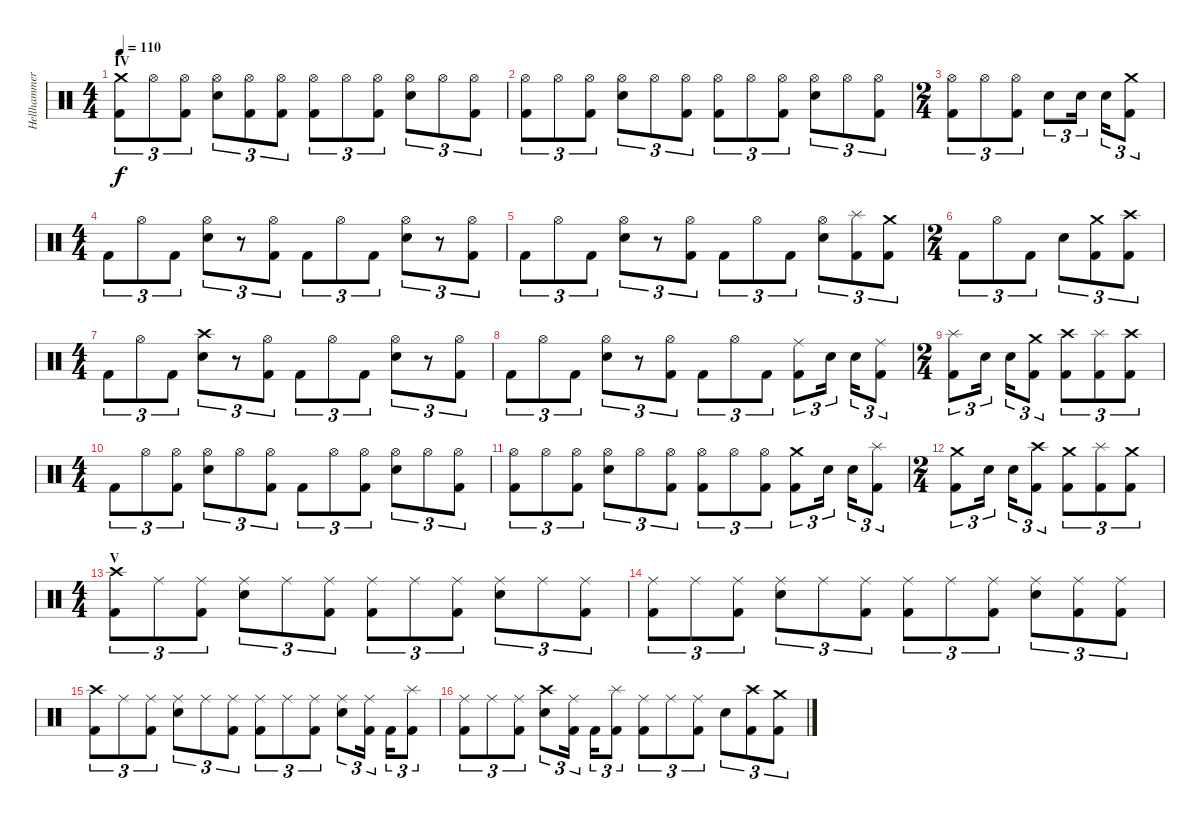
\track ("Hellhammer" "Hellhammer") {instrument percussion}
\staff {score}
\articulation defaults
\ts (4 4)
\section ("" "IV")
\tempo 110
\clef neutral
\ks c
("Kick (hit) 2" "Crash medium (hit)").8{tu (3 2) dy f} "Hi-Hat (open)".8{tu (3 2)} ("Kick (hit) 2" "Hi-Hat (open)").8{tu (3 2)} ("Electric Snare (hit)" "Hi-Hat (open)").8{tu (3 2)} ("Kick (hit) 2" "Hi-Hat (open)").8{tu (3 2)} ("Kick (hit) 2" "Hi-Hat (open)").8{tu (3 2)} ("Kick (hit) 2" "Hi-Hat (open)").8{tu (3 2)} "Hi-Hat (open)".8{tu (3 2)} ("Kick (hit) 2" "Hi-Hat (open)").8{tu (3 2)} ("Electric Snare (hit)" "Hi-Hat (open)").8{tu (3 2)} "Hi-Hat (open)".8{tu (3 2)} ("Kick (hit) 2" "Hi-Hat (open)").8{tu (3 2)} |
("Kick (hit) 2" "Hi-Hat (open)").8{tu (3 2)} "Hi-Hat (open)".8{tu (3 2)} ("Kick (hit) 2" "Hi-Hat (open)").8{tu (3 2)} ("Electric Snare (hit)" "Hi-Hat (open)").8{tu (3 2)} "Hi-Hat (open)".8{tu (3 2)} ("Kick (hit) 2" "Hi-Hat (open)").8{tu (3 2)} ("Kick (hit) 2" "Hi-Hat (open)").8{tu (3 2)} "Hi-Hat (open)".8{tu (3 2)} ("Kick (hit) 2" "Hi-Hat (open)").8{tu (3 2)} ("Electric Snare (hit)" "Hi-Hat (open)").8{tu (3 2)} "Hi-Hat (open)".8{tu (3 2)} ("Kick (hit) 2" "Hi-Hat (open)").8{tu (3 2)} |
\ts (2 4)
("Kick (hit) 2" "Hi-Hat (open)").8{tu (3 2)} "Hi-Hat (open)".8{tu (3 2)} ("Kick (hit) 2" "Hi-Hat (open)").8{tu (3 2)} "Electric Snare (hit)".8{tu (3 2)} "Electric Snare (hit)".16{tu (3 2)} "Electric Snare (hit)".16{tu (3 2)} ("Kick (hit) 2" "Crash medium (hit)").8{tu (3 2)} |
\ts (4 4)
"Kick (hit) 2".8{tu (3 2)} "Hi-Hat (open)".8{tu (3 2)} "Kick (hit) 2".8{tu (3 2)} ("Electric Snare (hit)" "Hi-Hat (open)").8{tu (3 2)} r.8{tu (3 2)} ("Kick (hit) 2" "Hi-Hat (open)").8{tu (3 2)} "Kick (hit) 2".8{tu (3 2)} "Hi-Hat (open)".8{tu (3 2)} "Kick (hit) 2".8{tu (3 2)} ("Electric Snare (hit)" "Hi-Hat (open)").8{tu (3 2)} r.8{tu (3 2)} ("Kick (hit) 2" "Hi-Hat (open)").8{tu (3 2)} |
"Kick (hit) 2".8{tu (3 2)} "Hi-Hat (open)".8{tu (3 2)} "Kick (hit) 2".8{tu (3 2)} ("Electric Snare (hit)" "Hi-Hat (open)").8{tu (3 2)} r.8{tu (3 2)} ("Kick (hit) 2" "Hi-Hat (open)").8{tu (3 2)} "Kick (hit) 2".8{tu (3 2)} "Hi-Hat (open)".8{tu (3 2)} "Kick (hit) 2".8{tu (3 2)} ("Electric Snare (hit)" "Hi-Hat (open)").8{tu (3 2)} ("Kick (hit) 2" "Splash (hit)").8{tu (3 2)} ("Kick (hit) 2" "Crash medium (hit)").8{tu (3 2)} |
\ts (2 4)
"Kick (hit) 2".8{tu (3 2)} "Hi-Hat (open)".8{tu (3 2)} "Kick (hit) 2".8{tu (3 2)} "Electric Snare (hit)".8{tu (3 2)} ("Kick (hit) 2" "Crash medium (hit)").8{tu (3 2)} ("Kick (hit) 2" "Crash high (hit)").8{tu (3 2)} |
\ts (4 4)
"Kick (hit) 2".8{tu (3 2)} "Hi-Hat (open)".8{tu (3 2)} "Kick (hit) 2".8{tu (3 2)} ("Electric Snare (hit)" "Crash high (hit)").8{tu (3 2)} r.8{tu (3 2)} ("Kick (hit) 2" "Hi-Hat (open)").8{tu (3 2)} "Kick (hit) 2".8{tu (3 2)} "Hi-Hat (open)".8{tu (3 2)} "Kick (hit) 2".8{tu (3 2)} ("Electric Snare (hit)" "Hi-Hat (open)").8{tu (3 2)} r.8{tu (3 2)} ("Kick (hit) 2" "Hi-Hat (open)").8{tu (3 2)} |
"Kick (hit) 2".8{tu (3 2)} "Hi-Hat (open)".8{tu (3 2)} "Kick (hit) 2".8{tu (3 2)} ("Electric Snare (hit)" "Hi-Hat (open)").8{tu (3 2)} r.8{tu (3 2)} ("Kick (hit) 2" "Hi-Hat (open)").8{tu (3 2)} "Kick (hit) 2".8{tu (3 2)} "Hi-Hat (open)".8{tu (3 2)} "Kick (hit) 2".8{tu (3 2)} ("Kick (hit) 2" "Ride (middle)").8{tu (3 2)} "Electric Snare (hit)".16{tu (3 2)} "Electric Snare (hit)".16{tu (3 2)} ("Kick (hit) 2" "Ride (middle)").8{tu (3 2)} |
\ts (2 4)
("Kick (hit) 2" "Splash (hit)").8{tu (3 2)} "Electric Snare (hit)".16{tu (3 2)} "Electric Snare (hit)".16{tu (3 2)} ("Kick (hit) 2" "Crash medium (hit)").8{tu (3 2)} ("Kick (hit) 2" "Crash high (hit)").8{tu (3 2)} ("Kick (hit) 2" "Splash (hit)").8{tu (3 2)} ("Kick (hit) 2" "Crash high (hit)").8{tu (3 2)} |
\ts (4 4)
"Kick (hit) 2".8{tu (3 2)} "Hi-Hat (open)".8{tu (3 2)} ("Kick (hit) 2" "Hi-Hat (open)").8{tu (3 2)} ("Electric Snare (hit)" "Hi-Hat (open)").8{tu (3 2)} "Hi-Hat (open)".8{tu (3 2)} ("Kick (hit) 2" "Hi-Hat (open)").8{tu (3 2)} "Kick (hit) 2".8{tu (3 2)} "Hi-Hat (open)".8{tu (3 2)} ("Kick (hit) 2" "Hi-Hat (open)").8{tu (3 2)} ("Electric Snare (hit)" "Hi-Hat (open)").8{tu (3 2)} "Hi-Hat (open)".8{tu (3 2)} ("Kick (hit) 2" "Hi-Hat (open)").8{tu (3 2)} |
("Kick (hit) 2" "Hi-Hat (open)").8{tu (3 2)} "Hi-Hat (open)".8{tu (3 2)} ("Kick (hit) 2" "Hi-Hat (open)").8{tu (3 2)} ("Electric Snare (hit)" "Hi-Hat (open)").8{tu (3 2)} "Hi-Hat (open)".8{tu (3 2)} ("Kick (hit) 2" "Hi-Hat (open)").8{tu (3 2)} ("Kick (hit) 2" "Hi-Hat (open)").8{tu (3 2)} "Hi-Hat (open)".8{tu (3 2)} ("Kick (hit) 2" "Hi-Hat (open)").8{tu (3 2)} ("Kick (hit) 2" "Crash medium (hit)").8{tu (3 2)} "Electric Snare (hit)".16{tu (3 2)} "Electric Snare (hit)".16{tu (3 2)} ("Kick (hit) 2" "Splash (hit)").8{tu (3 2)} |
\ts (2 4)
("Kick (hit) 2" "Crash medium (hit)").8{tu (3 2)} "Electric Snare (hit)".16{tu (3 2)} "Electric Snare (hit)".16{tu (3 2)} ("Kick (hit) 2" "Crash high (hit)").8{tu (3 2)} ("Kick (hit) 2" "Crash medium (hit)").8{tu (3 2)} ("Kick (hit) 2" "Splash (hit)").8{tu (3 2)} ("Kick (hit) 2" "Crash medium (hit)").8{tu (3 2)} |
\ts (4 4)
\section ("" "V")
("Kick (hit) 2" "Crash high (hit)").8{tu (3 2)} "Ride (middle)".8{tu (3 2)} ("Kick (hit) 2" "Ride (middle)").8{tu (3 2)} ("Electric Snare (hit)" "Ride (middle)").8{tu (3 2)} "Ride (middle)".8{tu (3 2)} ("Kick (hit) 2" "Ride (middle)").8{tu (3 2)} ("Kick (hit) 2" "Ride (middle)").8{tu (3 2)} "Ride (middle)".8{tu (3 2)} ("Kick (hit) 2" "Ride (middle)").8{tu (3 2)} ("Electric Snare (hit)" "Ride (middle)").8{tu (3 2)} "Ride (middle)".8{tu (3 2)} ("Kick (hit) 2" "Ride (middle)").8{tu (3 2)} |
("Kick (hit) 2" "Ride (middle)").8{tu (3 2)} "Ride (middle)".8{tu (3 2)} ("Kick (hit) 2" "Ride (middle)").8{tu (3 2)} ("Electric Snare (hit)" "Ride (middle)").8{tu (3 2)} "Ride (middle)".8{tu (3 2)} ("Kick (hit) 2" "Ride (middle)").8{tu (3 2)} ("Kick (hit) 2" "Ride (middle)").8{tu (3 2)} "Ride (middle)".8{tu (3 2)} ("Kick (hit) 2" "Ride (middle)").8{tu (3 2)} ("Electric Snare (hit)" "Ride (middle)").8{tu (3 2)} ("Kick (hit) 2" "Ride (middle)").8{tu (3 2)} ("Kick (hit) 2" "Ride (middle)").8{tu (3 2)} |
("Kick (hit) 2" "Crash high (hit)").8{tu (3 2)} "Ride (middle)".8{tu (3 2)} ("Kick (hit) 2" "Ride (middle)").8{tu (3 2)} ("Electric Snare (hit)" "Ride (middle)").8{tu (3 2)} "Ride (middle)".8{tu (3 2)} ("Kick (hit) 2" "Ride (middle)").8{tu (3 2)} ("Kick (hit) 2" "Ride (middle)").8{tu (3 2)} "Ride (middle)".8{tu (3 2)} ("Kick (hit) 2" "Ride (middle)").8{tu (3 2)} ("Electric Snare (hit)" "Ride (middle)").8{tu (3 2)} ("Kick (hit) 2" "Ride (middle)").16{tu (3 2)} "Kick (hit) 2".16{tu (3 2)} ("Kick (hit) 2" "Splash (hit)").8{tu (3 2)} |
("Kick (hit) 2" "Ride (middle)").8{tu (3 2)} "Ride (middle)".8{tu (3 2)} ("Kick (hit) 2" "Ride (middle)").8{tu (3 2)} ("Electric Snare (hit)" "Crash high (hit)").8{tu (3 2)} ("Kick (hit) 2" "Ride (middle)").16{tu (3 2)} "Kick (hit) 2".16{tu (3 2)} ("Kick (hit) 2" "Splash (hit)").8{tu (3 2)} ("Kick (hit) 2" "Ride (middle)").8{tu (3 2)} "Ride (middle)".8{tu (3 2)} ("Kick (hit) 2" "Ride (middle)").8{tu (3 2)} "Electric Snare (hit)".8{tu (3 2)} ("Kick (hit) 2" "Crash high (hit)").8{tu (3 2)} ("Kick (hit) 2" "Crash medium (hit)").8{tu (3 2)}
